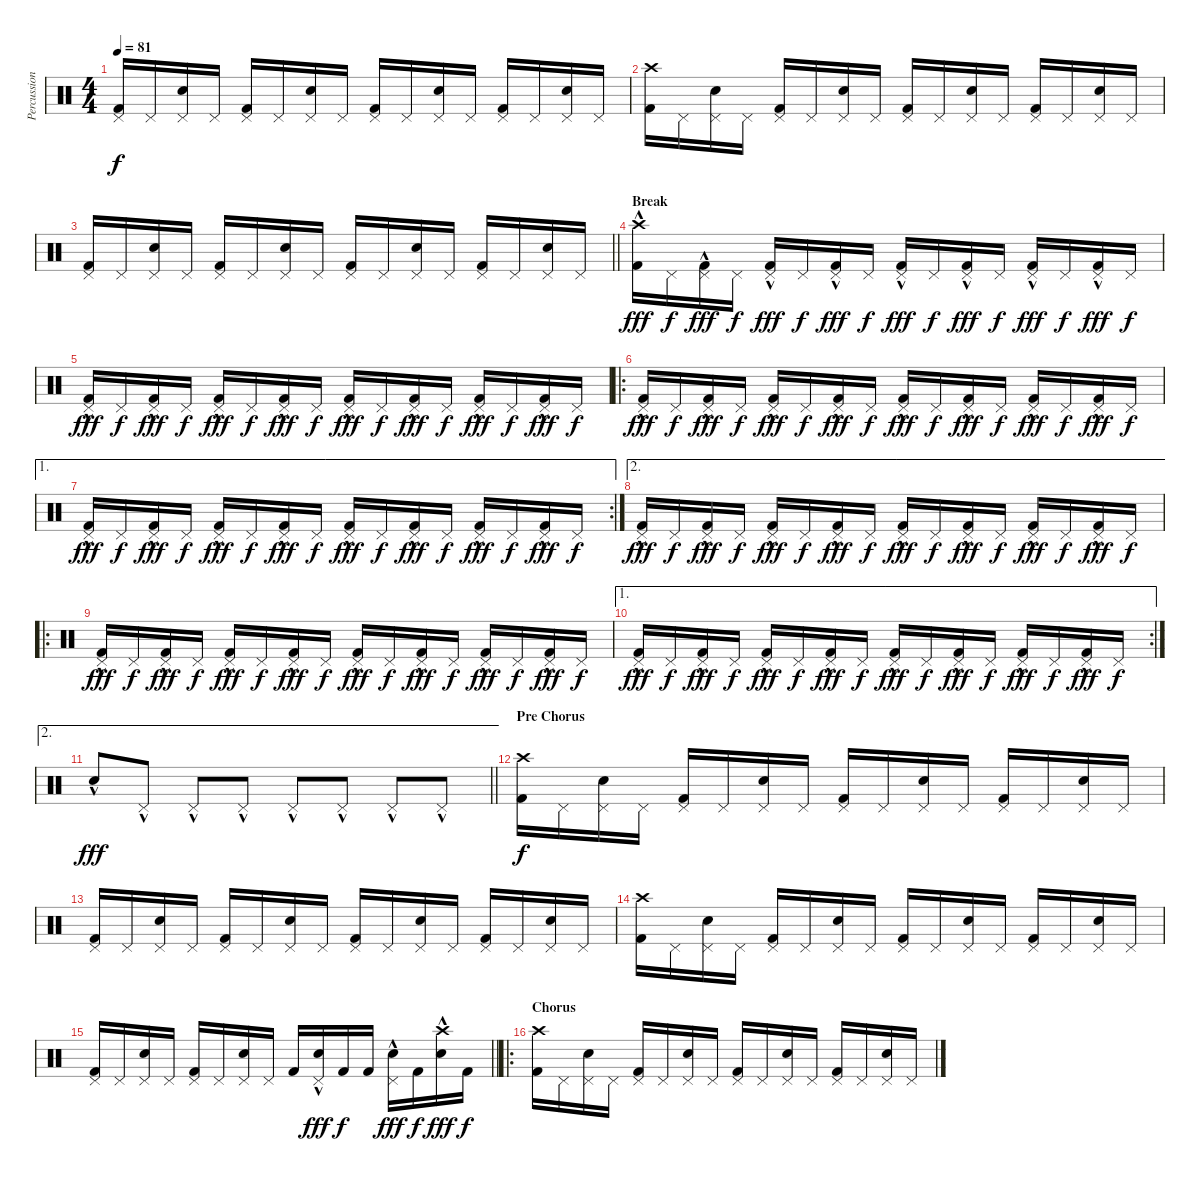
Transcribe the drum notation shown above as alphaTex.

\track ("Percussion" "Percussion") {instrument percussion}
\staff {score}
\articulation defaults
\ts (4 4)
\tempo 81
\clef neutral
\ks c
("Pedal Hi-Hat (hit)" "Kick (hit) 2").16{dy f} "Pedal Hi-Hat (hit)".16 ("Pedal Hi-Hat (hit)" "Electric Snare (hit)").16 "Pedal Hi-Hat (hit)".16 ("Pedal Hi-Hat (hit)" "Kick (hit) 2").16 "Pedal Hi-Hat (hit)".16 ("Pedal Hi-Hat (hit)" "Electric Snare (hit)").16 "Pedal Hi-Hat (hit)".16 ("Pedal Hi-Hat (hit)" "Kick (hit) 2").16 "Pedal Hi-Hat (hit)".16 ("Pedal Hi-Hat (hit)" "Electric Snare (hit)").16 "Pedal Hi-Hat (hit)".16 ("Pedal Hi-Hat (hit)" "Kick (hit) 2").16 "Pedal Hi-Hat (hit)".16 ("Pedal Hi-Hat (hit)" "Electric Snare (hit)").16 "Pedal Hi-Hat (hit)".16 |
("Crash high (hit)" "Kick (hit) 2").16 "Pedal Hi-Hat (hit)".16 ("Pedal Hi-Hat (hit)" "Electric Snare (hit)").16 "Pedal Hi-Hat (hit)".16 ("Pedal Hi-Hat (hit)" "Kick (hit) 2").16 "Pedal Hi-Hat (hit)".16 ("Pedal Hi-Hat (hit)" "Electric Snare (hit)").16 "Pedal Hi-Hat (hit)".16 ("Pedal Hi-Hat (hit)" "Kick (hit) 2").16 "Pedal Hi-Hat (hit)".16 ("Pedal Hi-Hat (hit)" "Electric Snare (hit)").16 "Pedal Hi-Hat (hit)".16 ("Pedal Hi-Hat (hit)" "Kick (hit) 2").16 "Pedal Hi-Hat (hit)".16 ("Pedal Hi-Hat (hit)" "Electric Snare (hit)").16 "Pedal Hi-Hat (hit)".16 |
\barLineRight lightlight
("Pedal Hi-Hat (hit)" "Kick (hit) 2").16 "Pedal Hi-Hat (hit)".16 ("Pedal Hi-Hat (hit)" "Electric Snare (hit)").16 "Pedal Hi-Hat (hit)".16 ("Pedal Hi-Hat (hit)" "Kick (hit) 2").16 "Pedal Hi-Hat (hit)".16 ("Pedal Hi-Hat (hit)" "Electric Snare (hit)").16 "Pedal Hi-Hat (hit)".16 ("Pedal Hi-Hat (hit)" "Kick (hit) 2").16 "Pedal Hi-Hat (hit)".16 ("Pedal Hi-Hat (hit)" "Electric Snare (hit)").16 "Pedal Hi-Hat (hit)".16 ("Pedal Hi-Hat (hit)" "Kick (hit) 2").16 "Pedal Hi-Hat (hit)".16 ("Pedal Hi-Hat (hit)" "Electric Snare (hit)").16 "Pedal Hi-Hat (hit)".16 |
\section ("" "Break")
("Crash high (hit)" "Kick (hit) 2"{hac}).16{dy fff} "Pedal Hi-Hat (hit)".16{dy f} ("Pedal Hi-Hat (hit)" "Kick (hit) 2"{hac}).16{dy fff} "Pedal Hi-Hat (hit)".16{dy f} ("Pedal Hi-Hat (hit)" "Kick (hit) 2"{hac}).16{dy fff} "Pedal Hi-Hat (hit)".16{dy f} ("Pedal Hi-Hat (hit)" "Kick (hit) 2"{hac}).16{dy fff} "Pedal Hi-Hat (hit)".16{dy f} ("Pedal Hi-Hat (hit)" "Kick (hit) 2"{hac}).16{dy fff} "Pedal Hi-Hat (hit)".16{dy f} ("Pedal Hi-Hat (hit)" "Kick (hit) 2"{hac}).16{dy fff} "Pedal Hi-Hat (hit)".16{dy f} ("Pedal Hi-Hat (hit)" "Kick (hit) 2"{hac}).16{dy fff} "Pedal Hi-Hat (hit)".16{dy f} ("Pedal Hi-Hat (hit)" "Kick (hit) 2"{hac}).16{dy fff} "Pedal Hi-Hat (hit)".16{dy f} |
("Pedal Hi-Hat (hit)" "Kick (hit) 2"{hac}).16{dy fff} "Pedal Hi-Hat (hit)".16{dy f} ("Pedal Hi-Hat (hit)" "Kick (hit) 2"{hac}).16{dy fff} "Pedal Hi-Hat (hit)".16{dy f} ("Pedal Hi-Hat (hit)" "Kick (hit) 2"{hac}).16{dy fff} "Pedal Hi-Hat (hit)".16{dy f} ("Pedal Hi-Hat (hit)" "Kick (hit) 2"{hac}).16{dy fff} "Pedal Hi-Hat (hit)".16{dy f} ("Pedal Hi-Hat (hit)" "Kick (hit) 2"{hac}).16{dy fff} "Pedal Hi-Hat (hit)".16{dy f} ("Pedal Hi-Hat (hit)" "Kick (hit) 2"{hac}).16{dy fff} "Pedal Hi-Hat (hit)".16{dy f} ("Pedal Hi-Hat (hit)" "Kick (hit) 2"{hac}).16{dy fff} "Pedal Hi-Hat (hit)".16{dy f} ("Pedal Hi-Hat (hit)" "Kick (hit) 2"{hac}).16{dy fff} "Pedal Hi-Hat (hit)".16{dy f} |
\ro
("Pedal Hi-Hat (hit)" "Kick (hit) 2"{hac}).16{dy fff} "Pedal Hi-Hat (hit)".16{dy f} ("Pedal Hi-Hat (hit)" "Kick (hit) 2"{hac}).16{dy fff} "Pedal Hi-Hat (hit)".16{dy f} ("Pedal Hi-Hat (hit)" "Kick (hit) 2"{hac}).16{dy fff} "Pedal Hi-Hat (hit)".16{dy f} ("Pedal Hi-Hat (hit)" "Kick (hit) 2"{hac}).16{dy fff} "Pedal Hi-Hat (hit)".16{dy f} ("Pedal Hi-Hat (hit)" "Kick (hit) 2"{hac}).16{dy fff} "Pedal Hi-Hat (hit)".16{dy f} ("Pedal Hi-Hat (hit)" "Kick (hit) 2"{hac}).16{dy fff} "Pedal Hi-Hat (hit)".16{dy f} ("Pedal Hi-Hat (hit)" "Kick (hit) 2"{hac}).16{dy fff} "Pedal Hi-Hat (hit)".16{dy f} ("Pedal Hi-Hat (hit)" "Kick (hit) 2"{hac}).16{dy fff} "Pedal Hi-Hat (hit)".16{dy f} |
\ae 1
\rc 2
("Pedal Hi-Hat (hit)" "Kick (hit) 2"{hac}).16{dy fff} "Pedal Hi-Hat (hit)".16{dy f} ("Pedal Hi-Hat (hit)" "Kick (hit) 2"{hac}).16{dy fff} "Pedal Hi-Hat (hit)".16{dy f} ("Pedal Hi-Hat (hit)" "Kick (hit) 2"{hac}).16{dy fff} "Pedal Hi-Hat (hit)".16{dy f} ("Pedal Hi-Hat (hit)" "Kick (hit) 2"{hac}).16{dy fff} "Pedal Hi-Hat (hit)".16{dy f} ("Pedal Hi-Hat (hit)" "Kick (hit) 2"{hac}).16{dy fff} "Pedal Hi-Hat (hit)".16{dy f} ("Pedal Hi-Hat (hit)" "Kick (hit) 2"{hac}).16{dy fff} "Pedal Hi-Hat (hit)".16{dy f} ("Pedal Hi-Hat (hit)" "Kick (hit) 2"{hac}).16{dy fff} "Pedal Hi-Hat (hit)".16{dy f} ("Pedal Hi-Hat (hit)" "Kick (hit) 2"{hac}).16{dy fff} "Pedal Hi-Hat (hit)".16{dy f} |
\ae 2
("Pedal Hi-Hat (hit)" "Kick (hit) 2"{hac}).16{dy fff} "Pedal Hi-Hat (hit)".16{dy f} ("Pedal Hi-Hat (hit)" "Kick (hit) 2"{hac}).16{dy fff} "Pedal Hi-Hat (hit)".16{dy f} ("Pedal Hi-Hat (hit)" "Kick (hit) 2"{hac}).16{dy fff} "Pedal Hi-Hat (hit)".16{dy f} ("Pedal Hi-Hat (hit)" "Kick (hit) 2"{hac}).16{dy fff} "Pedal Hi-Hat (hit)".16{dy f} ("Pedal Hi-Hat (hit)" "Kick (hit) 2"{hac}).16{dy fff} "Pedal Hi-Hat (hit)".16{dy f} ("Pedal Hi-Hat (hit)" "Kick (hit) 2"{hac}).16{dy fff} "Pedal Hi-Hat (hit)".16{dy f} ("Pedal Hi-Hat (hit)" "Kick (hit) 2"{hac}).16{dy fff} "Pedal Hi-Hat (hit)".16{dy f} ("Pedal Hi-Hat (hit)" "Kick (hit) 2"{hac}).16{dy fff} "Pedal Hi-Hat (hit)".16{dy f} |
\ro
("Pedal Hi-Hat (hit)" "Kick (hit) 2"{hac}).16{dy fff} "Pedal Hi-Hat (hit)".16{dy f} ("Pedal Hi-Hat (hit)" "Kick (hit) 2"{hac}).16{dy fff} "Pedal Hi-Hat (hit)".16{dy f} ("Pedal Hi-Hat (hit)" "Kick (hit) 2"{hac}).16{dy fff} "Pedal Hi-Hat (hit)".16{dy f} ("Pedal Hi-Hat (hit)" "Kick (hit) 2"{hac}).16{dy fff} "Pedal Hi-Hat (hit)".16{dy f} ("Pedal Hi-Hat (hit)" "Kick (hit) 2"{hac}).16{dy fff} "Pedal Hi-Hat (hit)".16{dy f} ("Pedal Hi-Hat (hit)" "Kick (hit) 2"{hac}).16{dy fff} "Pedal Hi-Hat (hit)".16{dy f} ("Pedal Hi-Hat (hit)" "Kick (hit) 2"{hac}).16{dy fff} "Pedal Hi-Hat (hit)".16{dy f} ("Pedal Hi-Hat (hit)" "Kick (hit) 2"{hac}).16{dy fff} "Pedal Hi-Hat (hit)".16{dy f} |
\ae 1
\rc 2
("Pedal Hi-Hat (hit)" "Kick (hit) 2"{hac}).16{dy fff} "Pedal Hi-Hat (hit)".16{dy f} ("Pedal Hi-Hat (hit)" "Kick (hit) 2"{hac}).16{dy fff} "Pedal Hi-Hat (hit)".16{dy f} ("Pedal Hi-Hat (hit)" "Kick (hit) 2"{hac}).16{dy fff} "Pedal Hi-Hat (hit)".16{dy f} ("Pedal Hi-Hat (hit)" "Kick (hit) 2"{hac}).16{dy fff} "Pedal Hi-Hat (hit)".16{dy f} ("Pedal Hi-Hat (hit)" "Kick (hit) 2"{hac}).16{dy fff} "Pedal Hi-Hat (hit)".16{dy f} ("Pedal Hi-Hat (hit)" "Kick (hit) 2"{hac}).16{dy fff} "Pedal Hi-Hat (hit)".16{dy f} ("Pedal Hi-Hat (hit)" "Kick (hit) 2"{hac}).16{dy fff} "Pedal Hi-Hat (hit)".16{dy f} ("Pedal Hi-Hat (hit)" "Kick (hit) 2"{hac}).16{dy fff} "Pedal Hi-Hat (hit)".16{dy f} |
\ae 2
\barLineRight lightlight "Electric Snare (hit)"{hac}.8{dy fff} "Pedal Hi-Hat (hit)"{hac}.8 "Pedal Hi-Hat (hit)"{hac}.8 "Pedal Hi-Hat (hit)"{hac}.8 "Pedal Hi-Hat (hit)"{hac}.8 "Pedal Hi-Hat (hit)"{hac}.8 "Pedal Hi-Hat (hit)"{hac}.8 "Pedal Hi-Hat (hit)"{hac}.8
|
\section ("" "Pre Chorus")
("Crash high (hit)" "Kick (hit) 2").16{dy f} "Pedal Hi-Hat (hit)".16 ("Pedal Hi-Hat (hit)" "Electric Snare (hit)").16 "Pedal Hi-Hat (hit)".16 ("Pedal Hi-Hat (hit)" "Kick (hit) 2").16 "Pedal Hi-Hat (hit)".16 ("Pedal Hi-Hat (hit)" "Electric Snare (hit)").16 "Pedal Hi-Hat (hit)".16 ("Pedal Hi-Hat (hit)" "Kick (hit) 2").16 "Pedal Hi-Hat (hit)".16 ("Pedal Hi-Hat (hit)" "Electric Snare (hit)").16 "Pedal Hi-Hat (hit)".16 ("Pedal Hi-Hat (hit)" "Kick (hit) 2").16 "Pedal Hi-Hat (hit)".16 ("Pedal Hi-Hat (hit)" "Electric Snare (hit)").16 "Pedal Hi-Hat (hit)".16 |
("Pedal Hi-Hat (hit)" "Kick (hit) 2").16 "Pedal Hi-Hat (hit)".16 ("Pedal Hi-Hat (hit)" "Electric Snare (hit)").16 "Pedal Hi-Hat (hit)".16 ("Pedal Hi-Hat (hit)" "Kick (hit) 2").16 "Pedal Hi-Hat (hit)".16 ("Pedal Hi-Hat (hit)" "Electric Snare (hit)").16 "Pedal Hi-Hat (hit)".16 ("Pedal Hi-Hat (hit)" "Kick (hit) 2").16 "Pedal Hi-Hat (hit)".16 ("Pedal Hi-Hat (hit)" "Electric Snare (hit)").16 "Pedal Hi-Hat (hit)".16 ("Pedal Hi-Hat (hit)" "Kick (hit) 2").16 "Pedal Hi-Hat (hit)".16 ("Pedal Hi-Hat (hit)" "Electric Snare (hit)").16 "Pedal Hi-Hat (hit)".16 |
("Crash high (hit)" "Kick (hit) 2").16 "Pedal Hi-Hat (hit)".16 ("Pedal Hi-Hat (hit)" "Electric Snare (hit)").16 "Pedal Hi-Hat (hit)".16 ("Pedal Hi-Hat (hit)" "Kick (hit) 2").16 "Pedal Hi-Hat (hit)".16 ("Pedal Hi-Hat (hit)" "Electric Snare (hit)").16 "Pedal Hi-Hat (hit)".16 ("Pedal Hi-Hat (hit)" "Kick (hit) 2").16 "Pedal Hi-Hat (hit)".16 ("Pedal Hi-Hat (hit)" "Electric Snare (hit)").16 "Pedal Hi-Hat (hit)".16 ("Pedal Hi-Hat (hit)" "Kick (hit) 2").16 "Pedal Hi-Hat (hit)".16 ("Pedal Hi-Hat (hit)" "Electric Snare (hit)").16 "Pedal Hi-Hat (hit)".16 |
\barLineRight lightlight
("Pedal Hi-Hat (hit)" "Kick (hit) 2").16 "Pedal Hi-Hat (hit)".16 ("Pedal Hi-Hat (hit)" "Electric Snare (hit)").16 "Pedal Hi-Hat (hit)".16 ("Pedal Hi-Hat (hit)" "Kick (hit) 2").16 "Pedal Hi-Hat (hit)".16 ("Pedal Hi-Hat (hit)" "Electric Snare (hit)").16 "Pedal Hi-Hat (hit)".16 "Kick (hit) 2".16 ("Pedal Hi-Hat (hit)"{hac} "Electric Snare (hit)"{hac}).16{dy fff} "Kick (hit) 2".16{dy f} "Kick (hit) 2".16 ("Pedal Hi-Hat (hit)"{hac} "Electric Snare (hit)"{hac}).16{dy fff} "Kick (hit) 2".16{dy f} ("Crash high (hit)"{hac} "Electric Snare (hit)"{hac}).16{dy fff} "Kick (hit) 2".16{dy f} |
\ro
\section ("" "Chorus")
("Crash high (hit)" "Kick (hit) 2").16 "Pedal Hi-Hat (hit)".16 ("Pedal Hi-Hat (hit)" "Electric Snare (hit)").16 "Pedal Hi-Hat (hit)".16 ("Pedal Hi-Hat (hit)" "Kick (hit) 2").16 "Pedal Hi-Hat (hit)".16 ("Pedal Hi-Hat (hit)" "Electric Snare (hit)").16 "Pedal Hi-Hat (hit)".16 ("Pedal Hi-Hat (hit)" "Kick (hit) 2").16 "Pedal Hi-Hat (hit)".16 ("Pedal Hi-Hat (hit)" "Electric Snare (hit)").16 "Pedal Hi-Hat (hit)".16 ("Pedal Hi-Hat (hit)" "Kick (hit) 2").16 "Pedal Hi-Hat (hit)".16 ("Pedal Hi-Hat (hit)" "Electric Snare (hit)").16 "Pedal Hi-Hat (hit)".16
